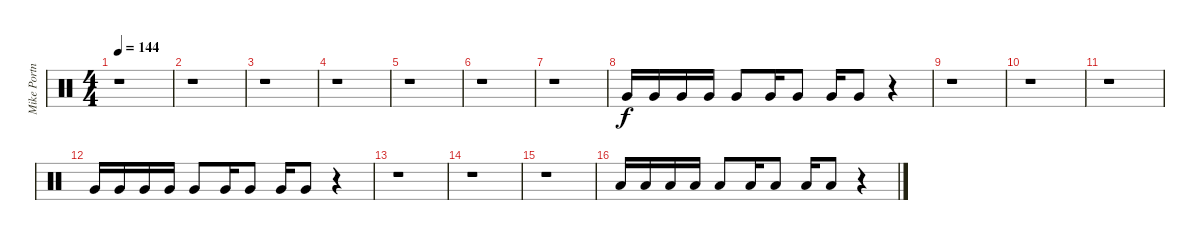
\track ("Mike Portnoy" "Mike Portn") {instrument percussion}
\staff {score}
\articulation defaults
\ts (4 4)
\tempo 144
\clef neutral
\ks c
r.1{dy f} |
r.1 |
r.1 |
r.1 |
r.1 |
r.1 |
r.1 |
"Very Low Tom (hit)".16 "Very Low Tom (hit)".16 "Very Low Tom (hit)".16 "Very Low Tom (hit)".16 "Very Low Tom (hit)".8 "Very Low Tom (hit)".16 "Very Low Tom (hit)".8 "Very Low Tom (hit)".16 "Very Low Tom (hit)".8 r.4 |
r.1 |
r.1 |
r.1 |
"Very Low Tom (hit)".16 "Very Low Tom (hit)".16 "Very Low Tom (hit)".16 "Very Low Tom (hit)".16 "Very Low Tom (hit)".8 "Very Low Tom (hit)".16 "Very Low Tom (hit)".8 "Very Low Tom (hit)".16 "Very Low Tom (hit)".8 r.4 |
r.1 |
r.1 |
r.1 |
"Low Tom (hit)".16 "Low Tom (hit)".16 "Low Tom (hit)".16 "Low Tom (hit)".16 "Low Tom (hit)".8 "Low Tom (hit)".16 "Low Tom (hit)".8 "Low Tom (hit)".16 "Low Tom (hit)".8 r.4
